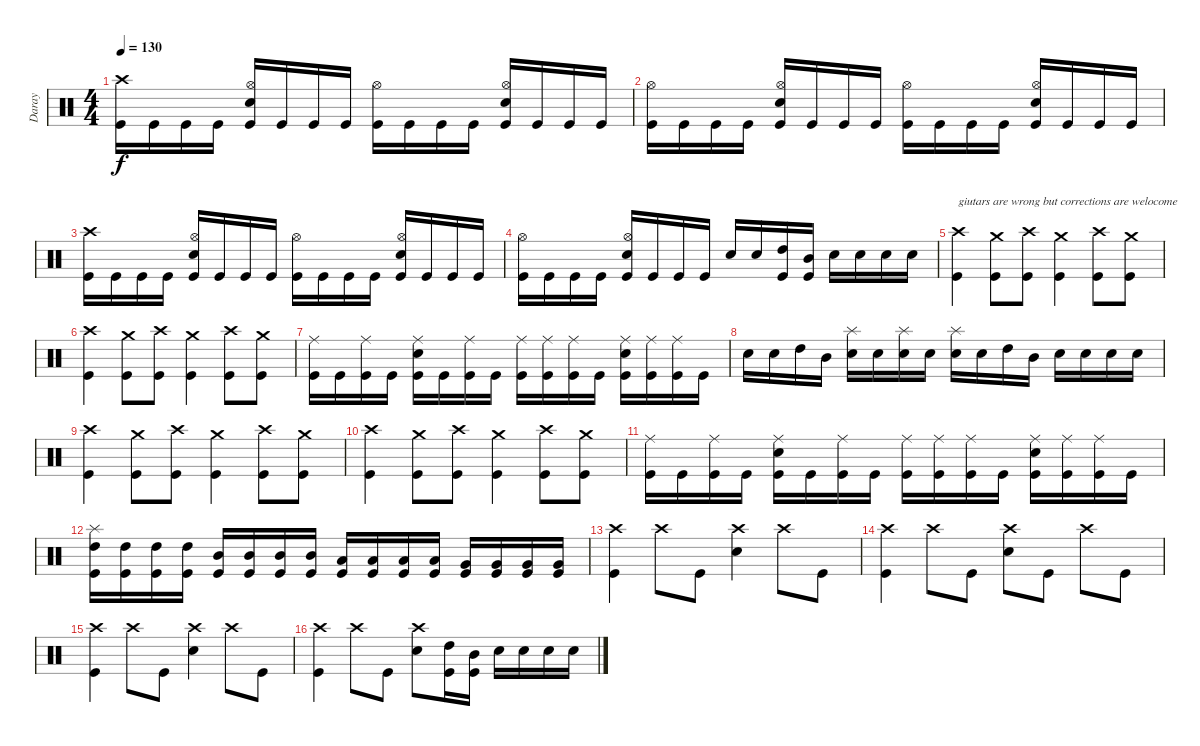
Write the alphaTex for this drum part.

\track ("Daray" "Daray") {instrument percussion}
\staff {score}
\articulation defaults
\ts (4 4)
\tempo 130
\clef neutral
\ks c
("Crash high (hit)" "Kick (hit)").16{dy f} "Kick (hit)".16 "Kick (hit)".16 "Kick (hit)".16 ("Hi-Hat (open)" "Electric Snare (hit)" "Kick (hit)").16 "Kick (hit)".16 "Kick (hit)".16 "Kick (hit)".16 ("Hi-Hat (open)" "Kick (hit)").16 "Kick (hit)".16 "Kick (hit)".16 "Kick (hit)".16 ("Hi-Hat (open)" "Electric Snare (hit)" "Kick (hit)").16 "Kick (hit)".16 "Kick (hit)".16 "Kick (hit)".16 |
("Hi-Hat (open)" "Kick (hit)").16 "Kick (hit)".16 "Kick (hit)".16 "Kick (hit)".16 ("Hi-Hat (open)" "Electric Snare (hit)" "Kick (hit)").16 "Kick (hit)".16 "Kick (hit)".16 "Kick (hit)".16 ("Hi-Hat (open)" "Kick (hit)").16 "Kick (hit)".16 "Kick (hit)".16 "Kick (hit)".16 ("Hi-Hat (open)" "Electric Snare (hit)" "Kick (hit)").16 "Kick (hit)".16 "Kick (hit)".16 "Kick (hit)".16 |
("Crash high (hit)" "Kick (hit)").16 "Kick (hit)".16 "Kick (hit)".16 "Kick (hit)".16 ("Hi-Hat (open)" "Electric Snare (hit)" "Kick (hit)").16 "Kick (hit)".16 "Kick (hit)".16 "Kick (hit)".16 ("Hi-Hat (open)" "Kick (hit)").16 "Kick (hit)".16 "Kick (hit)".16 "Kick (hit)".16 ("Hi-Hat (open)" "Electric Snare (hit)" "Kick (hit)").16 "Kick (hit)".16 "Kick (hit)".16 "Kick (hit)".16 |
("Hi-Hat (open)" "Kick (hit)").16 "Kick (hit)".16 "Kick (hit)".16 "Kick (hit)".16 ("Hi-Hat (open)" "Electric Snare (hit)" "Kick (hit)").16 "Kick (hit)".16 "Kick (hit)".16 "Kick (hit)".16 "Electric Snare (hit)".16 "Electric Snare (hit)".16 ("High Tom (hit)" "Kick (hit)").16 ("Mid Tom (hit)" "Kick (hit)").16 "Electric Snare (hit)".16 "Electric Snare (hit)".16 "Electric Snare (hit)".16 "Electric Snare (hit)".16 |
("Crash high (hit)" "Kick (hit)").4{txt "giutars are wrong but corrections are welocome"} ("Crash medium (hit)" "Kick (hit)").8 ("Crash high (hit)" "Kick (hit)").8 ("Crash medium (hit)" "Kick (hit)").4 ("Crash high (hit)" "Kick (hit)").8 ("Crash medium (hit)" "Kick (hit)").8 |
("Crash high (hit)" "Kick (hit)").4 ("Crash medium (hit)" "Kick (hit)").8 ("Crash high (hit)" "Kick (hit)").8 ("Crash medium (hit)" "Kick (hit)").4 ("Crash high (hit)" "Kick (hit)").8 ("Crash medium (hit)" "Kick (hit)").8 |
("Ride (middle)" "Kick (hit)").16 "Kick (hit)".16 ("Ride (middle)" "Kick (hit)").16 "Kick (hit)".16 ("Ride (middle)" "Electric Snare (hit)" "Kick (hit)").16 "Kick (hit)".16 ("Ride (middle)" "Kick (hit)").16 "Kick (hit)".16 ("Ride (middle)" "Kick (hit)").16 ("Ride (middle)" "Kick (hit)").16 ("Ride (middle)" "Kick (hit)").16 "Kick (hit)".16 ("Ride (middle)" "Electric Snare (hit)" "Kick (hit)").16 ("Ride (middle)" "Kick (hit)").16 ("Ride (middle)" "Kick (hit)").16 "Kick (hit)".16 |
"Electric Snare (hit)".16 "Electric Snare (hit)".16 "High Tom (hit)".16 "Mid Tom (hit)".16 ("Splash (hit)" "Electric Snare (hit)").16 "Electric Snare (hit)".16 ("Splash (hit)" "Electric Snare (hit)").16 "Electric Snare (hit)".16 ("Splash (hit)" "Electric Snare (hit)").16 "Electric Snare (hit)".16 "High Tom (hit)".16 "Mid Tom (hit)".16 "Electric Snare (hit)".16 "Electric Snare (hit)".16 "Electric Snare (hit)".16 "Electric Snare (hit)".16 |
("Crash high (hit)" "Kick (hit)").4 ("Crash medium (hit)" "Kick (hit)").8 ("Crash high (hit)" "Kick (hit)").8 ("Crash medium (hit)" "Kick (hit)").4 ("Crash high (hit)" "Kick (hit)").8 ("Crash medium (hit)" "Kick (hit)").8 |
("Crash high (hit)" "Kick (hit)").4 ("Crash medium (hit)" "Kick (hit)").8 ("Crash high (hit)" "Kick (hit)").8 ("Crash medium (hit)" "Kick (hit)").4 ("Crash high (hit)" "Kick (hit)").8 ("Crash medium (hit)" "Kick (hit)").8 |
("Ride (middle)" "Kick (hit)").16 "Kick (hit)".16 ("Ride (middle)" "Kick (hit)").16 "Kick (hit)".16 ("Ride (middle)" "Electric Snare (hit)" "Kick (hit)").16 "Kick (hit)".16 ("Ride (middle)" "Kick (hit)").16 "Kick (hit)".16 ("Ride (middle)" "Kick (hit)").16 ("Ride (middle)" "Kick (hit)").16 ("Ride (middle)" "Kick (hit)").16 "Kick (hit)".16 ("Ride (middle)" "Electric Snare (hit)" "Kick (hit)").16 ("Ride (middle)" "Kick (hit)").16 ("Ride (middle)" "Kick (hit)").16 "Kick (hit)".16 |
("High Tom (hit)" "Splash (hit)" "Kick (hit)").16 ("High Tom (hit)" "Kick (hit)").16 ("High Tom (hit)" "Kick (hit)").16 ("High Tom (hit)" "Kick (hit)").16 ("Mid Tom (hit)" "Kick (hit)").16 ("Mid Tom (hit)" "Kick (hit)").16 ("Mid Tom (hit)" "Kick (hit)").16 ("Mid Tom (hit)" "Kick (hit)").16 ("Low Tom (hit)" "Kick (hit)").16 ("Low Tom (hit)" "Kick (hit)").16 ("Low Tom (hit)" "Kick (hit)").16 ("Low Tom (hit)" "Kick (hit)").16 ("Very Low Tom (hit)" "Kick (hit)").16 ("Very Low Tom (hit)" "Kick (hit)").16 ("Very Low Tom (hit)" "Kick (hit)").16 ("Very Low Tom (hit)" "Kick (hit)").16 |
("Crash high (hit)" "Kick (hit)").4 "Crash high (hit)".8 "Kick (hit)".8 ("Crash high (hit)" "Electric Snare (hit)").4 "Crash high (hit)".8 "Kick (hit)".8 |
("Crash high (hit)" "Kick (hit)").4 "Crash high (hit)".8 "Kick (hit)".8 ("Crash high (hit)" "Electric Snare (hit)").8 "Kick (hit)".8 "Crash high (hit)".8 "Kick (hit)".8 |
("Crash high (hit)" "Kick (hit)").4 "Crash high (hit)".8 "Kick (hit)".8 ("Crash high (hit)" "Electric Snare (hit)").4 "Crash high (hit)".8 "Kick (hit)".8 |
("Crash high (hit)" "Kick (hit)").4 "Crash high (hit)".8 "Kick (hit)".8 ("Crash high (hit)" "Electric Snare (hit)").8 ("High Tom (hit)" "Kick (hit)").16 ("Mid Tom (hit)" "Kick (hit)").16 "Electric Snare (hit)".16 "Electric Snare (hit)".16 "Electric Snare (hit)".16 "Electric Snare (hit)".16
